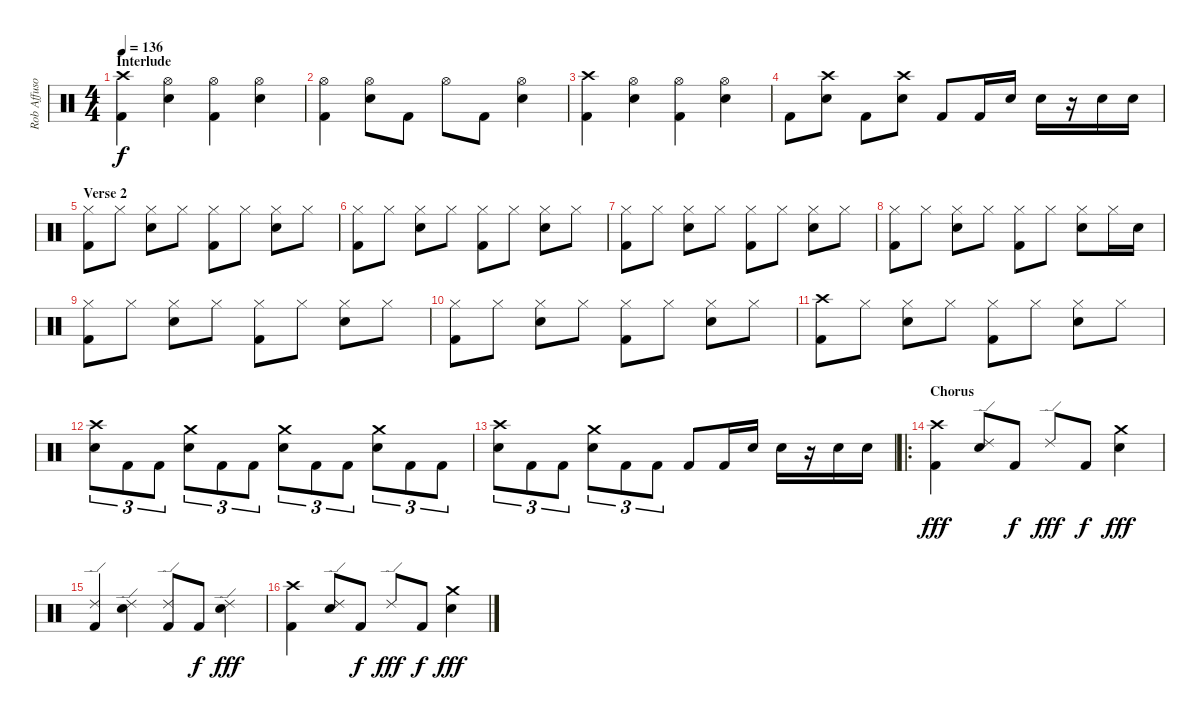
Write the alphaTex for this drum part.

\track ("Rob Affuso" "Rob Affuso") {instrument percussion}
\staff {score}
\articulation defaults
\ts (4 4)
\section ("" "Interlude")
\tempo 136
\clef neutral
\ks c
("Crash high (hit)" "Kick (hit) 2").4{dy f} ("Hi-Hat (open)" "Snare (hit) 2").4 ("Hi-Hat (open)" "Kick (hit) 2").4 ("Hi-Hat (open)" "Snare (hit) 2").4 |
("Hi-Hat (open)" "Kick (hit) 2").4 ("Hi-Hat (open)" "Snare (hit) 2").8 "Kick (hit) 2".8 "Hi-Hat (open)".8 "Kick (hit) 2".8 ("Hi-Hat (open)" "Snare (hit) 2").4 |
("Crash high (hit)" "Kick (hit) 2").4 ("Hi-Hat (open)" "Snare (hit) 2").4 ("Hi-Hat (open)" "Kick (hit) 2").4 ("Hi-Hat (open)" "Snare (hit) 2").4 |
"Kick (hit) 2".8 ("Crash high (hit)" "Snare (hit) 2").8 "Kick (hit) 2".8 ("Crash high (hit)" "Snare (hit) 2").8 "Kick (hit) 2".8 "Kick (hit) 2".16 "Snare (hit) 2".16 "Snare (hit) 2".16 r.16 "Snare (hit) 2".16 "Snare (hit) 2".16 |
\section ("" "Verse 2")
("Hi-Hat (closed)" "Kick (hit) 2").8 "Hi-Hat (closed)".8 ("Hi-Hat (closed)" "Snare (hit) 2").8 "Hi-Hat (closed)".8 ("Hi-Hat (closed)" "Kick (hit) 2").8 "Hi-Hat (closed)".8 ("Hi-Hat (closed)" "Snare (hit) 2").8 "Hi-Hat (closed)".8 |
("Hi-Hat (closed)" "Kick (hit) 2").8 "Hi-Hat (closed)".8 ("Hi-Hat (closed)" "Snare (hit) 2").8 "Hi-Hat (closed)".8 ("Hi-Hat (closed)" "Kick (hit) 2").8 "Hi-Hat (closed)".8 ("Hi-Hat (closed)" "Snare (hit) 2").8 "Hi-Hat (closed)".8 |
("Hi-Hat (closed)" "Kick (hit) 2").8 "Hi-Hat (closed)".8 ("Hi-Hat (closed)" "Snare (hit) 2").8 "Hi-Hat (closed)".8 ("Hi-Hat (closed)" "Kick (hit) 2").8 "Hi-Hat (closed)".8 ("Hi-Hat (closed)" "Snare (hit) 2").8 "Hi-Hat (closed)".8 |
("Hi-Hat (closed)" "Kick (hit) 2").8 "Hi-Hat (closed)".8 ("Hi-Hat (closed)" "Snare (hit) 2").8 "Hi-Hat (closed)".8 ("Hi-Hat (closed)" "Kick (hit) 2").8 "Hi-Hat (closed)".8 ("Hi-Hat (closed)" "Snare (hit) 2").8 "Hi-Hat (closed)".16 "Snare (hit) 2".16 |
("Hi-Hat (closed)" "Kick (hit) 2").8 "Hi-Hat (closed)".8 ("Hi-Hat (closed)" "Snare (hit) 2").8 "Hi-Hat (closed)".8 ("Hi-Hat (closed)" "Kick (hit) 2").8 "Hi-Hat (closed)".8 ("Hi-Hat (closed)" "Snare (hit) 2").8 "Hi-Hat (closed)".8 |
("Hi-Hat (closed)" "Kick (hit) 2").8 "Hi-Hat (closed)".8 ("Hi-Hat (closed)" "Snare (hit) 2").8 "Hi-Hat (closed)".8 ("Hi-Hat (closed)" "Kick (hit) 2").8 "Hi-Hat (closed)".8 ("Hi-Hat (closed)" "Snare (hit) 2").8 "Hi-Hat (closed)".8 |
("Crash high (hit)" "Kick (hit) 2").8 "Hi-Hat (closed)".8 ("Hi-Hat (closed)" "Snare (hit) 2").8 "Hi-Hat (closed)".8 ("Hi-Hat (closed)" "Kick (hit) 2").8 "Hi-Hat (closed)".8 ("Hi-Hat (closed)" "Snare (hit) 2").8 "Hi-Hat (closed)".8 |
("Crash high (hit)" "Snare (hit) 2").8{tu (3 2)} "Kick (hit) 2".8{tu (3 2)} "Kick (hit) 2".8{tu (3 2)} ("Crash medium (hit)" "Snare (hit) 2").8{tu (3 2)} "Kick (hit) 2".8{tu (3 2)} "Kick (hit) 2".8{tu (3 2)} ("Crash medium (hit)" "Snare (hit) 2").8{tu (3 2)} "Kick (hit) 2".8{tu (3 2)} "Kick (hit) 2".8{tu (3 2)} ("Crash medium (hit)" "Snare (hit) 2").8{tu (3 2)} "Kick (hit) 2".8{tu (3 2)} "Kick (hit) 2".8{tu (3 2)} |
("Crash high (hit)" "Snare (hit) 2").8{tu (3 2)} "Kick (hit) 2".8{tu (3 2)} "Kick (hit) 2".8{tu (3 2)} ("Crash medium (hit)" "Snare (hit) 2").8{tu (3 2)} "Kick (hit) 2".8{tu (3 2)} "Kick (hit) 2".8{tu (3 2)} "Kick (hit) 2".8 "Kick (hit) 2".16 "Snare (hit) 2".16 "Snare (hit) 2".16 r.16 "Snare (hit) 2".16 "Snare (hit) 2".16 |
\ro
\section ("" "Chorus")
("Crash high (hit)" "Kick (hit) 2").4{dy fff} ("Ride (edge) 2" "Snare (hit) 2").8 "Kick (hit) 2".8{dy f} "Ride (edge) 2".8{dy fff} "Kick (hit) 2".8{dy f} ("Crash medium (hit)" "Snare (hit) 2").4{dy fff} |
("Ride (edge) 2" "Kick (hit) 2").4 ("Ride (edge) 2" "Snare (hit) 2").4 ("Ride (edge) 2" "Kick (hit) 2").8 "Kick (hit) 2".8{dy f} ("Ride (edge) 2" "Snare (hit) 2").4{dy fff} |
("Crash high (hit)" "Kick (hit) 2").4 ("Ride (edge) 2" "Snare (hit) 2").8 "Kick (hit) 2".8{dy f} "Ride (edge) 2".8{dy fff} "Kick (hit) 2".8{dy f} ("Crash medium (hit)" "Snare (hit) 2").4{dy fff}
